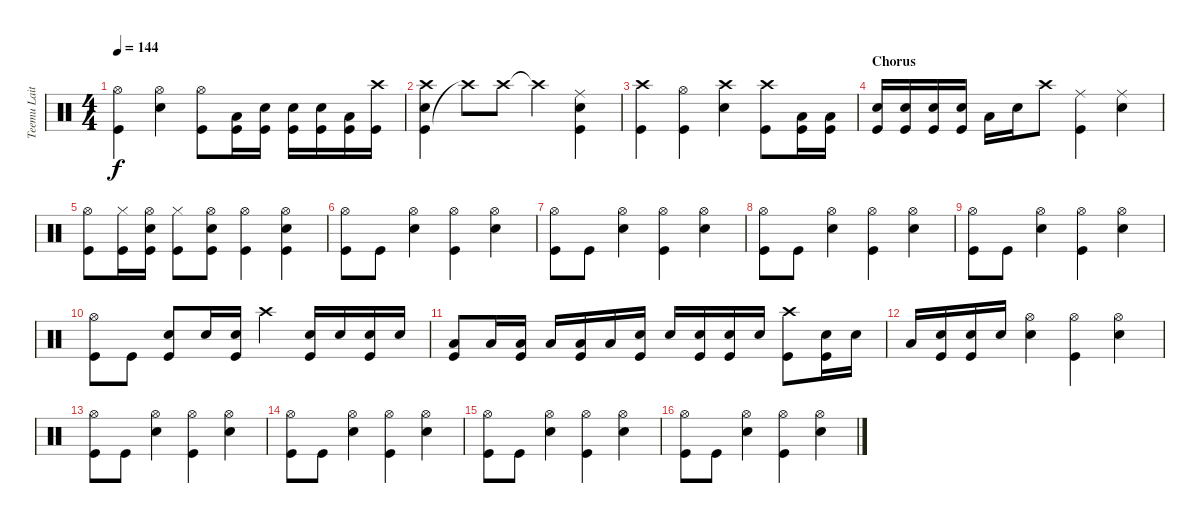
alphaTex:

\track ("Teemu Laitinen" "Teemu Lait") {instrument percussion}
\staff {score}
\articulation defaults
\ts (4 4)
\tempo 144
\clef neutral
\ks c
("Hi-Hat (open)" "Kick (hit)").4{dy f} ("Hi-Hat (open)" "Electric Snare (hit)").4 ("Hi-Hat (open)" "Kick (hit)").8 ("Kick (hit)" "Low Floor Tom (hit)").16 ("Kick (hit)" "Electric Snare (hit)").16 ("Kick (hit)" "Electric Snare (hit)").16 ("Kick (hit)" "Electric Snare (hit)").16 ("Kick (hit)" "Low Floor Tom (hit)").16 ("Kick (hit)" "Crash high (hit)").16 |
("Kick (hit)" "Electric Snare (hit)" "Crash high (hit)").4 "Crash high (hit)"{t}.8 "Crash high (hit)".8 "Crash high (hit)"{t}.4 ("Ride (middle)" "Kick (hit)" "Electric Snare (hit)").4 |
("Crash high (hit)" "Kick (hit)").4 ("Hi-Hat (open)" "Kick (hit)").4 ("Crash high (hit)" "Electric Snare (hit)").4 ("Crash high (hit)" "Kick (hit)").8 ("Kick (hit)" "Low Tom (hit)").16 ("Kick (hit)" "Low Floor Tom (hit)").16 |
\section ("" "Chorus")
("Kick (hit)" "Electric Snare (hit)").16 ("Kick (hit)" "Electric Snare (hit)").16 ("Kick (hit)" "Electric Snare (hit)").16 ("Kick (hit)" "Electric Snare (hit)").16 "Low Floor Tom (hit)".16 "Electric Snare (hit)".16 "Crash high (hit)".8 ("Ride (middle)" "Kick (hit)").4 ("Ride (middle)" "Electric Snare (hit)").4 |
("Hi-Hat (open)" "Kick (hit)").8 ("Hi-Hat (closed)" "Kick (hit)").16 ("Hi-Hat (open)" "Kick (hit)" "Electric Snare (hit)").16 ("Hi-Hat (closed)" "Kick (hit)").8 ("Hi-Hat (open)" "Kick (hit)" "Electric Snare (hit)").8 ("Hi-Hat (open)" "Kick (hit)").4 ("Hi-Hat (open)" "Kick (hit)" "Electric Snare (hit)").4 |
("Hi-Hat (open)" "Kick (hit)").8 "Kick (hit)".8 ("Hi-Hat (open)" "Electric Snare (hit)").4 ("Hi-Hat (open)" "Kick (hit)").4 ("Hi-Hat (open)" "Electric Snare (hit)").4 |
("Hi-Hat (open)" "Kick (hit)").8 "Kick (hit)".8 ("Hi-Hat (open)" "Electric Snare (hit)").4 ("Hi-Hat (open)" "Kick (hit)").4 ("Hi-Hat (open)" "Electric Snare (hit)").4 |
("Hi-Hat (open)" "Kick (hit)").8 "Kick (hit)".8 ("Hi-Hat (open)" "Electric Snare (hit)").4 ("Hi-Hat (open)" "Kick (hit)").4 ("Hi-Hat (open)" "Electric Snare (hit)").4 |
("Hi-Hat (open)" "Kick (hit)").8 "Kick (hit)".8 ("Hi-Hat (open)" "Electric Snare (hit)").4 ("Hi-Hat (open)" "Kick (hit)").4 ("Hi-Hat (open)" "Electric Snare (hit)").4 |
("Hi-Hat (open)" "Kick (hit)").8 "Kick (hit)".8 ("Kick (hit)" "Electric Snare (hit)").8 "Electric Snare (hit)".16 ("Kick (hit)" "Electric Snare (hit)").16 "Crash high (hit)".4 ("Kick (hit)" "Electric Snare (hit)").16 "Electric Snare (hit)".16 ("Kick (hit)" "Electric Snare (hit)").16 "Electric Snare (hit)".16 |
("Kick (hit)" "Low Tom (hit)").8 "Low Tom (hit)".16 ("Kick (hit)" "Low Tom (hit)").16 "Low Tom (hit)".16 ("Kick (hit)" "Low Floor Tom (hit)").16 "Low Floor Tom (hit)".16 ("Kick (hit)" "Electric Snare (hit)").16 "Electric Snare (hit)".16 ("Kick (hit)" "Electric Snare (hit)").16 ("Kick (hit)" "Electric Snare (hit)").16 "Electric Snare (hit)".16 ("Kick (hit)" "Crash high (hit)").8 ("Kick (hit)" "Electric Snare (hit)").16 "Electric Snare (hit)".16 |
"Low Floor Tom (hit)".16 ("Kick (hit)" "Electric Snare (hit)").16 ("Kick (hit)" "Electric Snare (hit)").16 "Electric Snare (hit)".16 ("Hi-Hat (open)" "Electric Snare (hit)").4 ("Hi-Hat (open)" "Kick (hit)").4 ("Hi-Hat (open)" "Electric Snare (hit)").4 |
("Hi-Hat (open)" "Kick (hit)").8 "Kick (hit)".8 ("Hi-Hat (open)" "Electric Snare (hit)").4 ("Hi-Hat (open)" "Kick (hit)").4 ("Hi-Hat (open)" "Electric Snare (hit)").4 |
("Hi-Hat (open)" "Kick (hit)").8 "Kick (hit)".8 ("Hi-Hat (open)" "Electric Snare (hit)").4 ("Hi-Hat (open)" "Kick (hit)").4 ("Hi-Hat (open)" "Electric Snare (hit)").4 |
("Hi-Hat (open)" "Kick (hit)").8 "Kick (hit)".8 ("Hi-Hat (open)" "Electric Snare (hit)").4 ("Hi-Hat (open)" "Kick (hit)").4 ("Hi-Hat (open)" "Electric Snare (hit)").4 |
("Hi-Hat (open)" "Kick (hit)").8 "Kick (hit)".8 ("Hi-Hat (open)" "Electric Snare (hit)").4 ("Hi-Hat (open)" "Kick (hit)").4 ("Hi-Hat (open)" "Electric Snare (hit)").4
